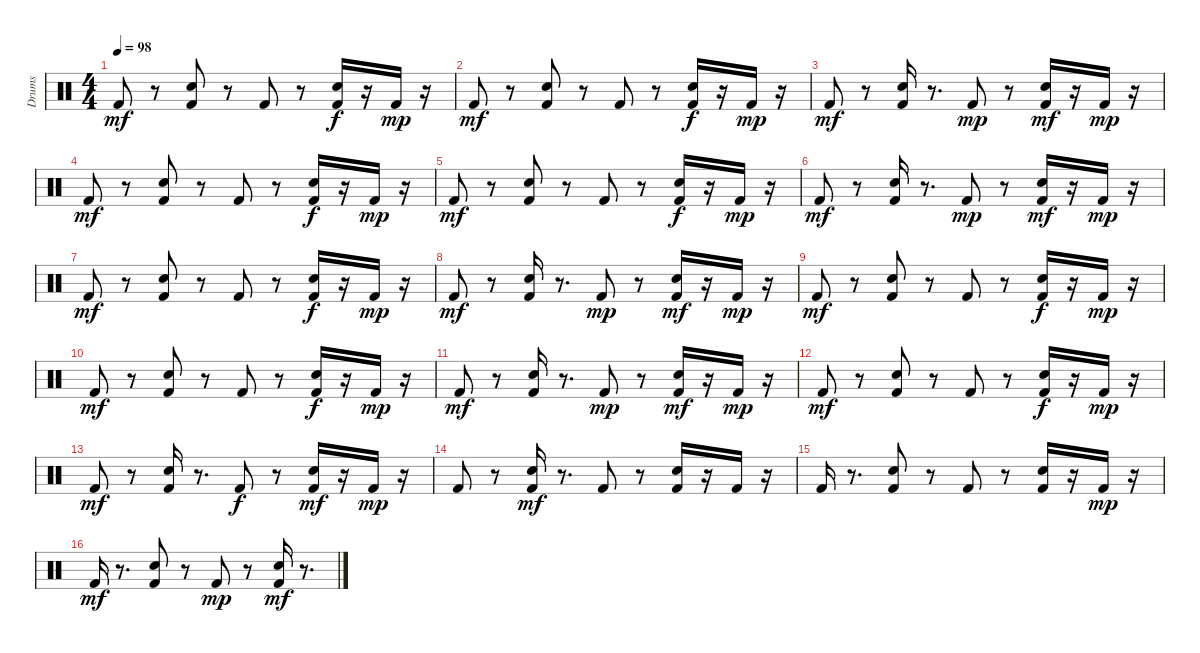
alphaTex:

\track ("Drums" "Drums") {instrument percussion}
\staff {score}
\articulation defaults
\ts (4 4)
\tempo 98
\clef neutral
\ks c "Kick (hit) 2".8{dy mf}
r.8 ("Kick (hit) 2" "Snare (hit) 2").8 r.8 "Kick (hit) 2".8 r.8 ("Kick (hit) 2" "Snare (hit) 2").16{dy f} r.16 "Kick (hit) 2".16{dy mp} r.16 |
"Kick (hit) 2".8{dy mf} r.8 ("Kick (hit) 2" "Snare (hit) 2").8 r.8 "Kick (hit) 2".8 r.8 ("Kick (hit) 2" "Snare (hit) 2").16{dy f} r.16 "Kick (hit) 2".16{dy mp} r.16 |
"Kick (hit) 2".8{dy mf} r.8 ("Kick (hit) 2" "Snare (hit) 2").16 r.8{d} "Kick (hit) 2".8{dy mp} r.8 ("Kick (hit) 2" "Snare (hit) 2").16{dy mf} r.16 "Kick (hit) 2".16{dy mp} r.16 |
"Kick (hit) 2".8{dy mf} r.8 ("Kick (hit) 2" "Snare (hit) 2").8 r.8 "Kick (hit) 2".8 r.8 ("Kick (hit) 2" "Snare (hit) 2").16{dy f} r.16 "Kick (hit) 2".16{dy mp} r.16 |
"Kick (hit) 2".8{dy mf} r.8 ("Kick (hit) 2" "Snare (hit) 2").8 r.8 "Kick (hit) 2".8 r.8 ("Kick (hit) 2" "Snare (hit) 2").16{dy f} r.16 "Kick (hit) 2".16{dy mp} r.16 |
"Kick (hit) 2".8{dy mf} r.8 ("Kick (hit) 2" "Snare (hit) 2").16 r.8{d} "Kick (hit) 2".8{dy mp} r.8 ("Kick (hit) 2" "Snare (hit) 2").16{dy mf} r.16 "Kick (hit) 2".16{dy mp} r.16 |
"Kick (hit) 2".8{dy mf} r.8 ("Kick (hit) 2" "Snare (hit) 2").8 r.8 "Kick (hit) 2".8 r.8 ("Kick (hit) 2" "Snare (hit) 2").16{dy f} r.16 "Kick (hit) 2".16{dy mp} r.16 |
"Kick (hit) 2".8{dy mf} r.8 ("Kick (hit) 2" "Snare (hit) 2").16 r.8{d} "Kick (hit) 2".8{dy mp} r.8 ("Kick (hit) 2" "Snare (hit) 2").16{dy mf} r.16 "Kick (hit) 2".16{dy mp} r.16 |
"Kick (hit) 2".8{dy mf} r.8 ("Kick (hit) 2" "Snare (hit) 2").8 r.8 "Kick (hit) 2".8 r.8 ("Kick (hit) 2" "Snare (hit) 2").16{dy f} r.16 "Kick (hit) 2".16{dy mp} r.16 |
"Kick (hit) 2".8{dy mf} r.8 ("Kick (hit) 2" "Snare (hit) 2").8 r.8 "Kick (hit) 2".8 r.8 ("Kick (hit) 2" "Snare (hit) 2").16{dy f} r.16 "Kick (hit) 2".16{dy mp} r.16 |
"Kick (hit) 2".8{dy mf} r.8 ("Kick (hit) 2" "Snare (hit) 2").16 r.8{d} "Kick (hit) 2".8{dy mp} r.8 ("Kick (hit) 2" "Snare (hit) 2").16{dy mf} r.16 "Kick (hit) 2".16{dy mp} r.16 |
"Kick (hit) 2".8{dy mf} r.8 ("Kick (hit) 2" "Snare (hit) 2").8 r.8 "Kick (hit) 2".8 r.8 ("Kick (hit) 2" "Snare (hit) 2").16{dy f} r.16 "Kick (hit) 2".16{dy mp} r.16 |
"Kick (hit) 2".8{dy mf} r.8 ("Kick (hit) 2" "Snare (hit) 2").16 r.8{d} "Kick (hit) 2".8{dy f} r.8 ("Snare (hit) 2" "Kick (hit) 2").16{dy mf} r.16 "Kick (hit) 2".16{dy mp} r.16 |
"Kick (hit) 2".8 r.8 ("Snare (hit) 2" "Kick (hit) 2").16{dy mf} r.8{d} "Kick (hit) 2".8 r.8 ("Kick (hit) 2" "Snare (hit) 2").16 r.16 "Kick (hit) 2".16 r.16 |
"Kick (hit) 2".16 r.8{d} ("Kick (hit) 2" "Snare (hit) 2").8 r.8 "Kick (hit) 2".8 r.8 ("Kick (hit) 2" "Snare (hit) 2").16 r.16 "Kick (hit) 2".16{dy mp} r.16 |
"Kick (hit) 2".16{dy mf} r.8{d} ("Kick (hit) 2" "Snare (hit) 2").8 r.8 "Kick (hit) 2".8{dy mp} r.8 ("Kick (hit) 2" "Snare (hit) 2").16{dy mf} r.8{d}
